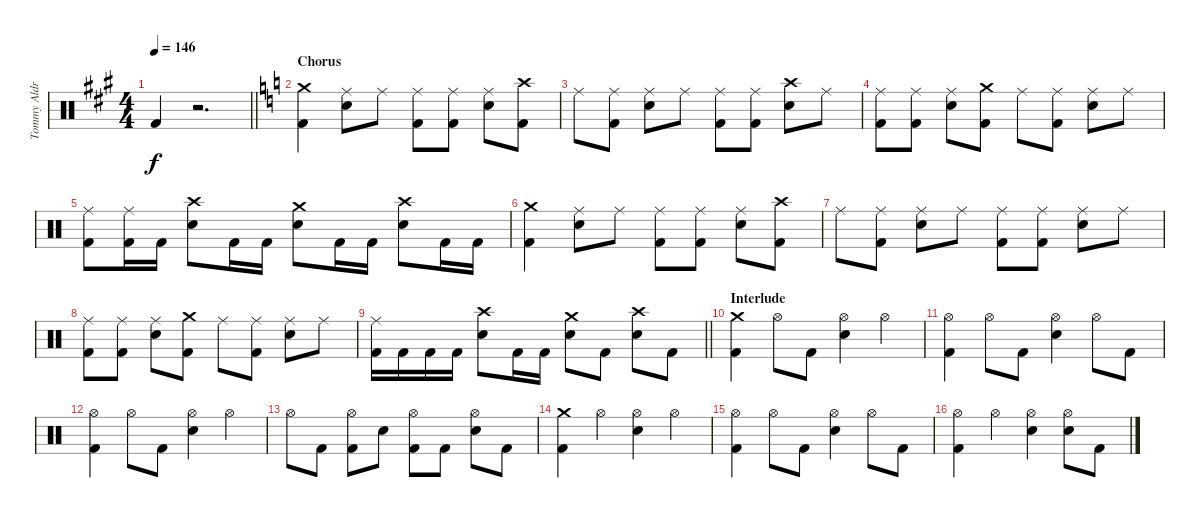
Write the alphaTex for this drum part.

\track ("Tommy Aldridge Drums" "Tommy Aldr") {instrument percussion}
\staff {score}
\articulation defaults
\ts (4 4)
\tempo 146
\clef neutral
\barLineRight lightlight
\ks f#minor "Kick (hit) 2".4{dy f}
r.2{d} |
\section ("" "Chorus")
\ks aminor
("Crash medium (hit)" "Kick (hit) 2").4 ("Ride (middle)" "Electric Snare (hit)").8 "Ride (middle)".8 ("Ride (middle)" "Kick (hit) 2").8 ("Ride (middle)" "Kick (hit) 2").8 ("Ride (middle)" "Electric Snare (hit)").8 ("Crash high (hit)" "Kick (hit) 2").8 |
"Ride (middle)".8 ("Ride (middle)" "Kick (hit) 2").8 ("Ride (middle)" "Electric Snare (hit)").8 "Ride (middle)".8 ("Ride (middle)" "Kick (hit) 2").8 ("Ride (middle)" "Kick (hit) 2").8 ("Crash high (hit)" "Electric Snare (hit)").8 "Ride (middle)".8 |
("Ride (middle)" "Kick (hit) 2").8 ("Ride (middle)" "Kick (hit) 2").8 ("Ride (middle)" "Electric Snare (hit)").8 ("Crash medium (hit)" "Kick (hit) 2").8 "Ride (middle)".8 ("Ride (middle)" "Kick (hit) 2").8 ("Ride (middle)" "Electric Snare (hit)").8 "Ride (middle)".8 |
("Ride (middle)" "Kick (hit) 2").8 ("Ride (middle)" "Kick (hit) 2").16 "Kick (hit) 2".16 ("Crash high (hit)" "Electric Snare (hit)").8 "Kick (hit) 2".16 "Kick (hit) 2".16 ("Crash medium (hit)" "Electric Snare (hit)").8 "Kick (hit) 2".16 "Kick (hit) 2".16 ("Crash high (hit)" "Electric Snare (hit)").8 "Kick (hit) 2".16 "Kick (hit) 2".16 |
("Crash medium (hit)" "Kick (hit) 2").4 ("Ride (middle)" "Electric Snare (hit)").8 "Ride (middle)".8 ("Ride (middle)" "Kick (hit) 2").8 ("Ride (middle)" "Kick (hit) 2").8 ("Ride (middle)" "Electric Snare (hit)").8 ("Crash high (hit)" "Kick (hit) 2").8 |
"Ride (middle)".8 ("Ride (middle)" "Kick (hit) 2").8 ("Ride (middle)" "Electric Snare (hit)").8 "Ride (middle)".8 ("Ride (middle)" "Kick (hit) 2").8 ("Ride (middle)" "Kick (hit) 2").8 ("Ride (middle)" "Electric Snare (hit)").8 "Ride (middle)".8 |
("Ride (middle)" "Kick (hit) 2").8 ("Ride (middle)" "Kick (hit) 2").8 ("Ride (middle)" "Electric Snare (hit)").8 ("Crash medium (hit)" "Kick (hit) 2").8 "Ride (middle)".8 ("Ride (middle)" "Kick (hit) 2").8 ("Ride (middle)" "Electric Snare (hit)").8 "Ride (middle)".8 |
\barLineRight lightlight
("Ride (middle)" "Kick (hit) 2").16 "Kick (hit) 2".16 "Kick (hit) 2".16 "Kick (hit) 2".16 ("Crash high (hit)" "Electric Snare (hit)").8 "Kick (hit) 2".16 "Kick (hit) 2".16 ("Crash medium (hit)" "Electric Snare (hit)").8 "Kick (hit) 2".8 ("Crash high (hit)" "Electric Snare (hit)").8 "Kick (hit) 2".8 |
\section ("" "Interlude")
("Crash medium (hit)" "Kick (hit) 2").4 "Hi-Hat (open)".8 "Kick (hit) 2".8 ("Hi-Hat (open)" "Electric Snare (hit)").4 "Hi-Hat (open)".4 |
("Hi-Hat (open)" "Kick (hit) 2").4 "Hi-Hat (open)".8 "Kick (hit) 2".8 ("Hi-Hat (open)" "Electric Snare (hit)").4 "Hi-Hat (open)".8 "Kick (hit) 2".8 |
("Hi-Hat (open)" "Kick (hit) 2").4 "Hi-Hat (open)".8 "Kick (hit) 2".8 ("Hi-Hat (open)" "Electric Snare (hit)").4 "Hi-Hat (open)".4 |
"Hi-Hat (open)".8 "Kick (hit) 2".8 ("Hi-Hat (open)" "Kick (hit) 2").8 "Electric Snare (hit)".8 ("Hi-Hat (open)" "Kick (hit) 2").8 "Kick (hit) 2".8 ("Hi-Hat (open)" "Electric Snare (hit)").8 "Kick (hit) 2".8 |
("Crash medium (hit)" "Kick (hit) 2").4 "Hi-Hat (open)".4 ("Hi-Hat (open)" "Electric Snare (hit)").4 "Hi-Hat (open)".4 |
("Hi-Hat (open)" "Kick (hit) 2").4 "Hi-Hat (open)".8 "Kick (hit) 2".8 ("Hi-Hat (open)" "Electric Snare (hit)").4 "Hi-Hat (open)".8 "Kick (hit) 2".8 |
("Hi-Hat (open)" "Kick (hit) 2").4 "Hi-Hat (open)".4 ("Hi-Hat (open)" "Electric Snare (hit)").4 ("Hi-Hat (open)" "Electric Snare (hit)").8 "Kick (hit) 2".8
